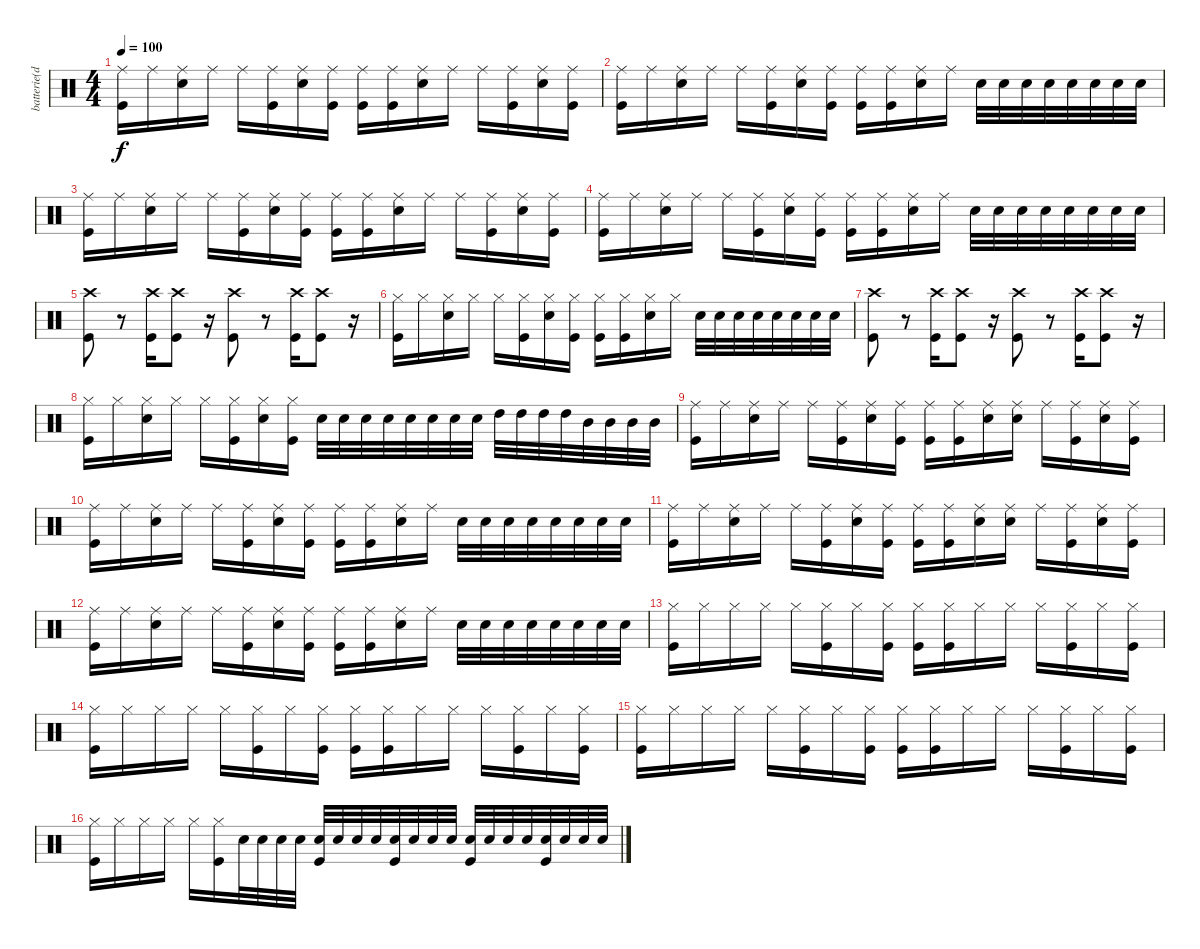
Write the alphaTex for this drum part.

\track ("batterie(dave)" "batterie(d") {instrument percussion}
\staff {score}
\articulation defaults
\ts (4 4)
\tempo 100
\clef neutral
\ks c
("Ride (middle)" "Kick (hit)").16{dy f} "Ride (middle)".16 ("Ride (middle)" "Snare (hit) 2").16 "Ride (middle)".16 "Ride (middle)".16 ("Ride (middle)" "Kick (hit)").16 ("Ride (middle)" "Snare (hit) 2").16 ("Ride (middle)" "Kick (hit)").16 ("Ride (middle)" "Kick (hit)").16 ("Ride (middle)" "Kick (hit)").16 ("Ride (middle)" "Snare (hit) 2").16 "Ride (middle)".16 "Ride (middle)".16 ("Ride (middle)" "Kick (hit)").16 ("Ride (middle)" "Snare (hit) 2").16 ("Ride (middle)" "Kick (hit)").16 |
("Ride (middle)" "Kick (hit)").16 "Ride (middle)".16 ("Ride (middle)" "Snare (hit) 2").16 "Ride (middle)".16 "Ride (middle)".16 ("Ride (middle)" "Kick (hit)").16 ("Ride (middle)" "Snare (hit) 2").16 ("Ride (middle)" "Kick (hit)").16 ("Ride (middle)" "Kick (hit)").16 ("Ride (middle)" "Kick (hit)").16 ("Ride (middle)" "Snare (hit) 2").16 "Ride (middle)".16 "Snare (hit) 2".32 "Snare (hit) 2".32 "Snare (hit) 2".32 "Snare (hit) 2".32 "Snare (hit) 2".32 "Snare (hit) 2".32 "Snare (hit) 2".32 "Snare (hit) 2".32 |
("Ride (middle)" "Kick (hit)").16 "Ride (middle)".16 ("Ride (middle)" "Snare (hit) 2").16 "Ride (middle)".16 "Ride (middle)".16 ("Ride (middle)" "Kick (hit)").16 ("Ride (middle)" "Snare (hit) 2").16 ("Ride (middle)" "Kick (hit)").16 ("Ride (middle)" "Kick (hit)").16 ("Ride (middle)" "Kick (hit)").16 ("Ride (middle)" "Snare (hit) 2").16 "Ride (middle)".16 "Ride (middle)".16 ("Ride (middle)" "Kick (hit)").16 ("Ride (middle)" "Snare (hit) 2").16 ("Ride (middle)" "Kick (hit)").16 |
("Ride (middle)" "Kick (hit)").16 "Ride (middle)".16 ("Ride (middle)" "Snare (hit) 2").16 "Ride (middle)".16 "Ride (middle)".16 ("Ride (middle)" "Kick (hit)").16 ("Ride (middle)" "Snare (hit) 2").16 ("Ride (middle)" "Kick (hit)").16 ("Ride (middle)" "Kick (hit)").16 ("Ride (middle)" "Kick (hit)").16 ("Ride (middle)" "Snare (hit) 2").16 "Ride (middle)".16 "Snare (hit) 2".32 "Snare (hit) 2".32 "Snare (hit) 2".32 "Snare (hit) 2".32 "Snare (hit) 2".32 "Snare (hit) 2".32 "Snare (hit) 2".32 "Snare (hit) 2".32 |
("Crash high (hit)" "Kick (hit)").8 r.8 ("Crash high (hit)" "Kick (hit)").16 ("Crash high (hit)" "Kick (hit)").8 r.16 ("Crash high (hit)" "Kick (hit)").8 r.8 ("Crash high (hit)" "Kick (hit)").16 ("Crash high (hit)" "Kick (hit)").8 r.16 |
("Hi-Hat (closed)" "Kick (hit)").16 "Hi-Hat (closed)".16 ("Hi-Hat (closed)" "Snare (hit) 2").16 "Hi-Hat (closed)".16 "Hi-Hat (closed)".16 ("Hi-Hat (closed)" "Kick (hit)").16 ("Hi-Hat (closed)" "Snare (hit) 2").16 ("Hi-Hat (closed)" "Kick (hit)").16 ("Hi-Hat (closed)" "Kick (hit)").16 ("Hi-Hat (closed)" "Kick (hit)").16 ("Hi-Hat (closed)" "Snare (hit) 2").16 "Hi-Hat (closed)".16 "Snare (hit) 2".32 "Snare (hit) 2".32 "Snare (hit) 2".32 "Snare (hit) 2".32 "Snare (hit) 2".32 "Snare (hit) 2".32 "Snare (hit) 2".32 "Snare (hit) 2".32 |
("Crash high (hit)" "Kick (hit)").8 r.8 ("Crash high (hit)" "Kick (hit)").16 ("Crash high (hit)" "Kick (hit)").8 r.16 ("Crash high (hit)" "Kick (hit)").8 r.8 ("Crash high (hit)" "Kick (hit)").16 ("Crash high (hit)" "Kick (hit)").8 r.16 |
("Hi-Hat (closed)" "Kick (hit)").16 "Hi-Hat (closed)".16 ("Hi-Hat (closed)" "Snare (hit) 2").16 "Hi-Hat (closed)".16 "Hi-Hat (closed)".16 ("Hi-Hat (closed)" "Kick (hit)").16 ("Hi-Hat (closed)" "Snare (hit) 2").16 ("Hi-Hat (closed)" "Kick (hit)").16 "Snare (hit) 2".32 "Snare (hit) 2".32 "Snare (hit) 2".32 "Snare (hit) 2".32 "Snare (hit) 2".32 "Snare (hit) 2".32 "Snare (hit) 2".32 "Snare (hit) 2".32 "High Tom (hit)".32 "High Tom (hit)".32 "High Tom (hit)".32 "High Tom (hit)".32 "Mid Tom (hit)".32 "Mid Tom (hit)".32 "Mid Tom (hit)".32 "Mid Tom (hit)".32 |
("Ride (middle)" "Kick (hit)").16 "Ride (middle)".16 ("Ride (middle)" "Snare (hit) 2").16 "Ride (middle)".16 "Ride (middle)".16 ("Ride (middle)" "Kick (hit)").16 ("Ride (middle)" "Snare (hit) 2").16 ("Ride (middle)" "Kick (hit)").16 ("Ride (middle)" "Kick (hit)").16 ("Ride (middle)" "Kick (hit)").16 ("Ride (middle)" "Snare (hit) 2").16 ("Ride (middle)" "Snare (hit) 2").16 "Ride (middle)".16 ("Ride (middle)" "Kick (hit)").16 ("Ride (middle)" "Snare (hit) 2").16 ("Ride (middle)" "Kick (hit)").16 |
("Ride (middle)" "Kick (hit)").16 "Ride (middle)".16 ("Ride (middle)" "Snare (hit) 2").16 "Ride (middle)".16 "Ride (middle)".16 ("Ride (middle)" "Kick (hit)").16 ("Ride (middle)" "Snare (hit) 2").16 ("Ride (middle)" "Kick (hit)").16 ("Ride (middle)" "Kick (hit)").16 ("Ride (middle)" "Kick (hit)").16 ("Ride (middle)" "Snare (hit) 2").16 "Ride (middle)".16 "Snare (hit) 2".32 "Snare (hit) 2".32 "Snare (hit) 2".32 "Snare (hit) 2".32 "Snare (hit) 2".32 "Snare (hit) 2".32 "Snare (hit) 2".32 "Snare (hit) 2".32 |
("Ride (middle)" "Kick (hit)").16 "Ride (middle)".16 ("Ride (middle)" "Snare (hit) 2").16 "Ride (middle)".16 "Ride (middle)".16 ("Ride (middle)" "Kick (hit)").16 ("Ride (middle)" "Snare (hit) 2").16 ("Ride (middle)" "Kick (hit)").16 ("Ride (middle)" "Kick (hit)").16 ("Ride (middle)" "Kick (hit)").16 ("Ride (middle)" "Snare (hit) 2").16 ("Ride (middle)" "Snare (hit) 2").16 "Ride (middle)".16 ("Ride (middle)" "Kick (hit)").16 ("Ride (middle)" "Snare (hit) 2").16 ("Ride (middle)" "Kick (hit)").16 |
("Ride (middle)" "Kick (hit)").16 "Ride (middle)".16 ("Ride (middle)" "Snare (hit) 2").16 "Ride (middle)".16 "Ride (middle)".16 ("Ride (middle)" "Kick (hit)").16 ("Ride (middle)" "Snare (hit) 2").16 ("Ride (middle)" "Kick (hit)").16 ("Ride (middle)" "Kick (hit)").16 ("Ride (middle)" "Kick (hit)").16 ("Ride (middle)" "Snare (hit) 2").16 "Ride (middle)".16 "Snare (hit) 2".32 "Snare (hit) 2".32 "Snare (hit) 2".32 "Snare (hit) 2".32 "Snare (hit) 2".32 "Snare (hit) 2".32 "Snare (hit) 2".32 "Snare (hit) 2".32 |
("Hi-Hat (closed)" "Kick (hit)").16 "Hi-Hat (closed)".16 "Hi-Hat (closed)".16 "Hi-Hat (closed)".16 "Hi-Hat (closed)".16 ("Hi-Hat (closed)" "Kick (hit)").16 "Hi-Hat (closed)".16 ("Hi-Hat (closed)" "Kick (hit)").16 ("Hi-Hat (closed)" "Kick (hit)").16 ("Hi-Hat (closed)" "Kick (hit)").16 "Hi-Hat (closed)".16 "Hi-Hat (closed)".16 "Hi-Hat (closed)".16 ("Hi-Hat (closed)" "Kick (hit)").16 "Hi-Hat (closed)".16 ("Hi-Hat (closed)" "Kick (hit)").16 |
("Hi-Hat (closed)" "Kick (hit)").16 "Hi-Hat (closed)".16 "Hi-Hat (closed)".16 "Hi-Hat (closed)".16 "Hi-Hat (closed)".16 ("Hi-Hat (closed)" "Kick (hit)").16 "Hi-Hat (closed)".16 ("Hi-Hat (closed)" "Kick (hit)").16 ("Hi-Hat (closed)" "Kick (hit)").16 ("Hi-Hat (closed)" "Kick (hit)").16 "Hi-Hat (closed)".16 "Hi-Hat (closed)".16 "Hi-Hat (closed)".16 ("Hi-Hat (closed)" "Kick (hit)").16 "Hi-Hat (closed)".16 ("Hi-Hat (closed)" "Kick (hit)").16 |
("Hi-Hat (closed)" "Kick (hit)").16 "Hi-Hat (closed)".16 "Hi-Hat (closed)".16 "Hi-Hat (closed)".16 "Hi-Hat (closed)".16 ("Hi-Hat (closed)" "Kick (hit)").16 "Hi-Hat (closed)".16 ("Hi-Hat (closed)" "Kick (hit)").16 ("Hi-Hat (closed)" "Kick (hit)").16 ("Hi-Hat (closed)" "Kick (hit)").16 "Hi-Hat (closed)".16 "Hi-Hat (closed)".16 "Hi-Hat (closed)".16 ("Hi-Hat (closed)" "Kick (hit)").16 "Hi-Hat (closed)".16 ("Hi-Hat (closed)" "Kick (hit)").16 |
("Hi-Hat (closed)" "Kick (hit)").16 "Hi-Hat (closed)".16 "Hi-Hat (closed)".16 "Hi-Hat (closed)".16 "Hi-Hat (closed)".16 ("Hi-Hat (closed)" "Kick (hit)").16 "Snare (hit) 2".32 "Snare (hit) 2".32 "Snare (hit) 2".32 "Snare (hit) 2".32 ("Snare (hit) 2" "Kick (hit)").32 "Snare (hit) 2".32 "Snare (hit) 2".32 "Snare (hit) 2".32 ("Snare (hit) 2" "Kick (hit)").32 "Snare (hit) 2".32 "Snare (hit) 2".32 "Snare (hit) 2".32 ("Snare (hit) 2" "Kick (hit)").32 "Snare (hit) 2".32 "Snare (hit) 2".32 "Snare (hit) 2".32 ("Snare (hit) 2" "Kick (hit)").32 "Snare (hit) 2".32 "Snare (hit) 2".32 "Snare (hit) 2".32
